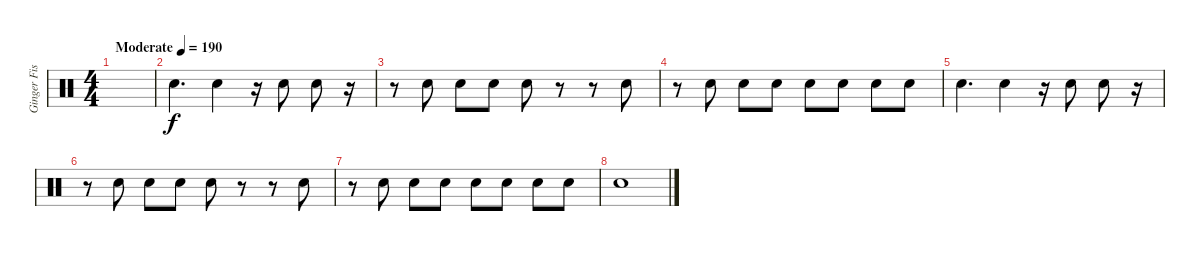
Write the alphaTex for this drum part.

\track ("Ginger Fish" "Ginger Fis") {instrument percussion}
\staff {score}
\articulation defaults
\ts (4 4)
\tempo (190 "Moderate")
\clef neutral
\ks c
|
"Electric Snare (hit)".4{d} "Electric Snare (hit)".4 r.16 "Electric Snare (hit)".8 "Electric Snare (hit)".8 r.16 |
r.8 "Electric Snare (hit)".8 "Electric Snare (hit)".8 "Electric Snare (hit)".8 "Electric Snare (hit)".8 r.8 r.8 "Electric Snare (hit)".8 |
r.8 "Electric Snare (hit)".8 "Electric Snare (hit)".8 "Electric Snare (hit)".8 "Electric Snare (hit)".8 "Electric Snare (hit)".8 "Electric Snare (hit)".8 "Electric Snare (hit)".8 |
"Electric Snare (hit)".4{d} "Electric Snare (hit)".4 r.16 "Electric Snare (hit)".8 "Electric Snare (hit)".8 r.16 |
r.8 "Electric Snare (hit)".8 "Electric Snare (hit)".8 "Electric Snare (hit)".8 "Electric Snare (hit)".8 r.8 r.8 "Electric Snare (hit)".8 |
r.8 "Electric Snare (hit)".8 "Electric Snare (hit)".8 "Electric Snare (hit)".8 "Electric Snare (hit)".8 "Electric Snare (hit)".8 "Electric Snare (hit)".8 "Electric Snare (hit)".8 |
"Electric Snare (hit)".1
